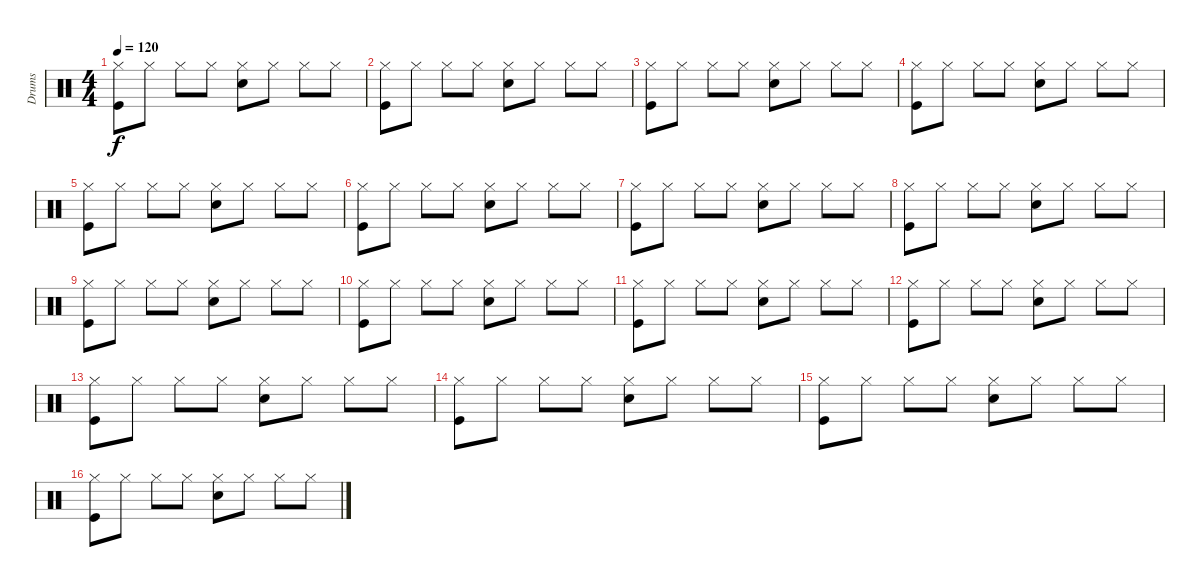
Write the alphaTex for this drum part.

\track ("Drums" "Drums") {instrument percussion}
\staff {score}
\articulation defaults
\ts (4 4)
\tempo 120
\clef neutral
\ks c
("Hi-Hat (closed)" "Kick (hit)").8{dy f} "Hi-Hat (closed)".8 "Hi-Hat (closed)".8 "Hi-Hat (closed)".8 ("Hi-Hat (closed)" "Snare (hit) 2").8 "Hi-Hat (closed)".8 "Hi-Hat (closed)".8 "Hi-Hat (closed)".8 |
("Hi-Hat (closed)" "Kick (hit)").8 "Hi-Hat (closed)".8 "Hi-Hat (closed)".8 "Hi-Hat (closed)".8 ("Hi-Hat (closed)" "Snare (hit) 2").8 "Hi-Hat (closed)".8 "Hi-Hat (closed)".8 "Hi-Hat (closed)".8 |
("Hi-Hat (closed)" "Kick (hit)").8 "Hi-Hat (closed)".8 "Hi-Hat (closed)".8 "Hi-Hat (closed)".8 ("Hi-Hat (closed)" "Snare (hit) 2").8 "Hi-Hat (closed)".8 "Hi-Hat (closed)".8 "Hi-Hat (closed)".8 |
("Hi-Hat (closed)" "Kick (hit)").8 "Hi-Hat (closed)".8 "Hi-Hat (closed)".8 "Hi-Hat (closed)".8 ("Hi-Hat (closed)" "Snare (hit) 2").8 "Hi-Hat (closed)".8 "Hi-Hat (closed)".8 "Hi-Hat (closed)".8 |
("Hi-Hat (closed)" "Kick (hit)").8 "Hi-Hat (closed)".8 "Hi-Hat (closed)".8 "Hi-Hat (closed)".8 ("Hi-Hat (closed)" "Snare (hit) 2").8 "Hi-Hat (closed)".8 "Hi-Hat (closed)".8 "Hi-Hat (closed)".8 |
("Hi-Hat (closed)" "Kick (hit)").8 "Hi-Hat (closed)".8 "Hi-Hat (closed)".8 "Hi-Hat (closed)".8 ("Hi-Hat (closed)" "Snare (hit) 2").8 "Hi-Hat (closed)".8 "Hi-Hat (closed)".8 "Hi-Hat (closed)".8 |
("Hi-Hat (closed)" "Kick (hit)").8 "Hi-Hat (closed)".8 "Hi-Hat (closed)".8 "Hi-Hat (closed)".8 ("Hi-Hat (closed)" "Snare (hit) 2").8 "Hi-Hat (closed)".8 "Hi-Hat (closed)".8 "Hi-Hat (closed)".8 |
("Hi-Hat (closed)" "Kick (hit)").8 "Hi-Hat (closed)".8 "Hi-Hat (closed)".8 "Hi-Hat (closed)".8 ("Hi-Hat (closed)" "Snare (hit) 2").8 "Hi-Hat (closed)".8 "Hi-Hat (closed)".8 "Hi-Hat (closed)".8 |
("Hi-Hat (closed)" "Kick (hit)").8 "Hi-Hat (closed)".8 "Hi-Hat (closed)".8 "Hi-Hat (closed)".8 ("Hi-Hat (closed)" "Snare (hit) 2").8 "Hi-Hat (closed)".8 "Hi-Hat (closed)".8 "Hi-Hat (closed)".8 |
("Hi-Hat (closed)" "Kick (hit)").8 "Hi-Hat (closed)".8 "Hi-Hat (closed)".8 "Hi-Hat (closed)".8 ("Hi-Hat (closed)" "Snare (hit) 2").8 "Hi-Hat (closed)".8 "Hi-Hat (closed)".8 "Hi-Hat (closed)".8 |
("Hi-Hat (closed)" "Kick (hit)").8 "Hi-Hat (closed)".8 "Hi-Hat (closed)".8 "Hi-Hat (closed)".8 ("Hi-Hat (closed)" "Snare (hit) 2").8 "Hi-Hat (closed)".8 "Hi-Hat (closed)".8 "Hi-Hat (closed)".8 |
("Hi-Hat (closed)" "Kick (hit)").8 "Hi-Hat (closed)".8 "Hi-Hat (closed)".8 "Hi-Hat (closed)".8 ("Hi-Hat (closed)" "Snare (hit) 2").8 "Hi-Hat (closed)".8 "Hi-Hat (closed)".8 "Hi-Hat (closed)".8 |
("Hi-Hat (closed)" "Kick (hit)").8 "Hi-Hat (closed)".8 "Hi-Hat (closed)".8 "Hi-Hat (closed)".8 ("Hi-Hat (closed)" "Snare (hit) 2").8 "Hi-Hat (closed)".8 "Hi-Hat (closed)".8 "Hi-Hat (closed)".8 |
("Hi-Hat (closed)" "Kick (hit)").8 "Hi-Hat (closed)".8 "Hi-Hat (closed)".8 "Hi-Hat (closed)".8 ("Hi-Hat (closed)" "Snare (hit) 2").8 "Hi-Hat (closed)".8 "Hi-Hat (closed)".8 "Hi-Hat (closed)".8 |
("Hi-Hat (closed)" "Kick (hit)").8 "Hi-Hat (closed)".8 "Hi-Hat (closed)".8 "Hi-Hat (closed)".8 ("Hi-Hat (closed)" "Snare (hit) 2").8 "Hi-Hat (closed)".8 "Hi-Hat (closed)".8 "Hi-Hat (closed)".8 |
("Hi-Hat (closed)" "Kick (hit)").8 "Hi-Hat (closed)".8 "Hi-Hat (closed)".8 "Hi-Hat (closed)".8 ("Hi-Hat (closed)" "Snare (hit) 2").8 "Hi-Hat (closed)".8 "Hi-Hat (closed)".8 "Hi-Hat (closed)".8
